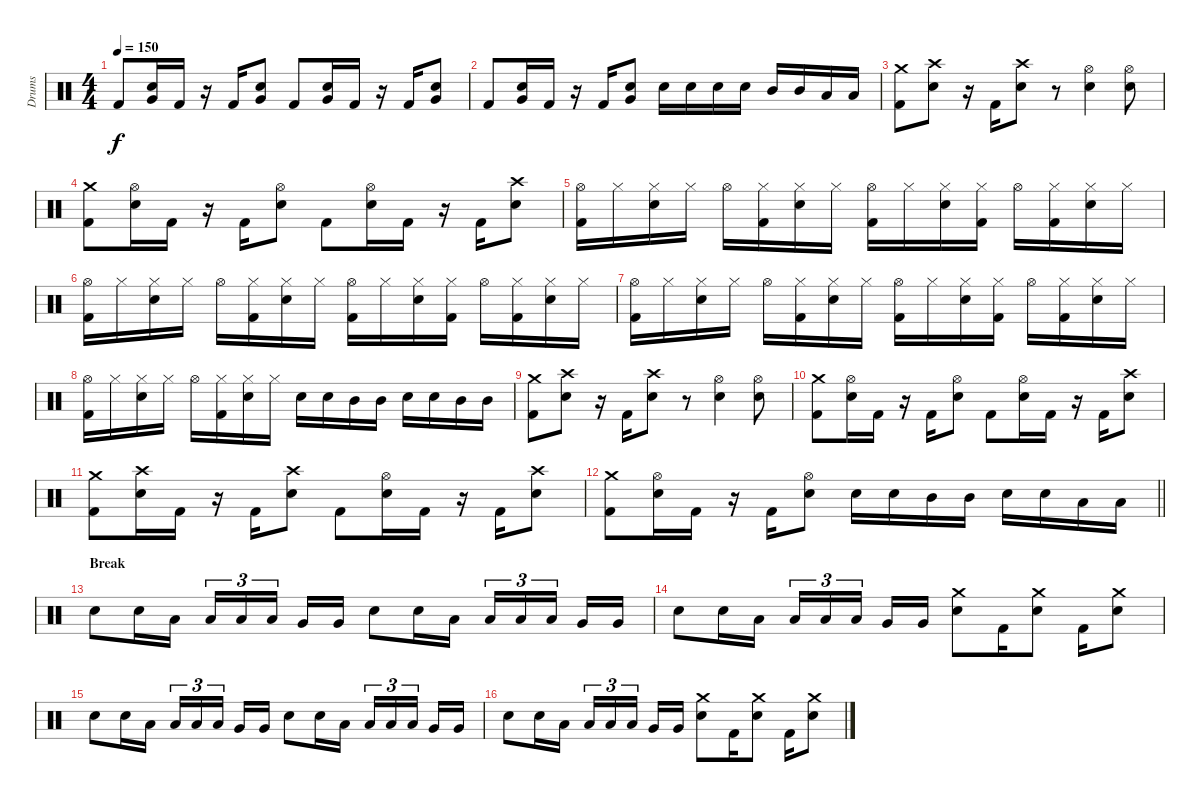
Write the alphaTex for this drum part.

\track ("Drums" "Drums") {instrument percussion}
\staff {score}
\articulation defaults
\ts (4 4)
\tempo 150
\clef neutral
\ks c "Kick (hit) 2".8{dy f}
("Very Low Tom (hit)" "Electric Snare (hit)").16 "Kick (hit) 2".16 r.16 "Kick (hit) 2".16 ("Very Low Tom (hit)" "Electric Snare (hit)").8 "Kick (hit) 2".8 ("Very Low Tom (hit)" "Electric Snare (hit)").16 "Kick (hit) 2".16 r.16 "Kick (hit) 2".16 ("Very Low Tom (hit)" "Electric Snare (hit)").8 |
"Kick (hit) 2".8 ("Very Low Tom (hit)" "Electric Snare (hit)").16 "Kick (hit) 2".16 r.16 "Kick (hit) 2".16 ("Very Low Tom (hit)" "Electric Snare (hit)").8 "Electric Snare (hit)".16 "Electric Snare (hit)".16 "Electric Snare (hit)".16 "Electric Snare (hit)".16 "Mid Tom (hit)".16 "Mid Tom (hit)".16 "Low Tom (hit)".16 "Low Tom (hit)".16 |
("Crash medium (hit)" "Kick (hit) 2").8 ("Crash high (hit)" "Electric Snare (hit)").8 r.16 "Kick (hit) 2".16 ("Crash high (hit)" "Electric Snare (hit)").8 r.8 ("Hi-Hat (open)" "Electric Snare (hit)").4 ("Hi-Hat (open)" "Electric Snare (hit)").8 |
("Crash medium (hit)" "Kick (hit) 2").8 ("Hi-Hat (open)" "Electric Snare (hit)").16 "Kick (hit) 2".16 r.16 "Kick (hit) 2".16 ("Hi-Hat (open)" "Electric Snare (hit)").8 "Kick (hit) 2".8 ("Hi-Hat (open)" "Electric Snare (hit)").16 "Kick (hit) 2".16 r.16 "Kick (hit) 2".16 ("Crash high (hit)" "Electric Snare (hit)").8 |
("Hi-Hat (open)" "Kick (hit) 2").16 "Hi-Hat (closed)".16 ("Hi-Hat (closed)" "Electric Snare (hit)").16 "Hi-Hat (closed)".16 "Hi-Hat (open)".16 ("Hi-Hat (closed)" "Kick (hit) 2").16 ("Hi-Hat (closed)" "Electric Snare (hit)").16 "Hi-Hat (closed)".16 ("Hi-Hat (open)" "Kick (hit) 2").16 "Hi-Hat (closed)".16 ("Hi-Hat (closed)" "Electric Snare (hit)").16 ("Hi-Hat (closed)" "Kick (hit) 2").16 "Hi-Hat (open)".16 ("Hi-Hat (closed)" "Kick (hit) 2").16 ("Hi-Hat (closed)" "Electric Snare (hit)").16 "Hi-Hat (closed)".16 |
("Hi-Hat (open)" "Kick (hit) 2").16 "Hi-Hat (closed)".16 ("Hi-Hat (closed)" "Electric Snare (hit)").16 "Hi-Hat (closed)".16 "Hi-Hat (open)".16 ("Hi-Hat (closed)" "Kick (hit) 2").16 ("Hi-Hat (closed)" "Electric Snare (hit)").16 "Hi-Hat (closed)".16 ("Hi-Hat (open)" "Kick (hit) 2").16 "Hi-Hat (closed)".16 ("Hi-Hat (closed)" "Electric Snare (hit)").16 ("Hi-Hat (closed)" "Kick (hit) 2").16 "Hi-Hat (open)".16 ("Hi-Hat (closed)" "Kick (hit) 2").16 ("Hi-Hat (closed)" "Electric Snare (hit)").16 "Hi-Hat (closed)".16 |
("Hi-Hat (open)" "Kick (hit) 2").16 "Hi-Hat (closed)".16 ("Hi-Hat (closed)" "Electric Snare (hit)").16 "Hi-Hat (closed)".16 "Hi-Hat (open)".16 ("Hi-Hat (closed)" "Kick (hit) 2").16 ("Hi-Hat (closed)" "Electric Snare (hit)").16 "Hi-Hat (closed)".16 ("Hi-Hat (open)" "Kick (hit) 2").16 "Hi-Hat (closed)".16 ("Hi-Hat (closed)" "Electric Snare (hit)").16 ("Hi-Hat (closed)" "Kick (hit) 2").16 "Hi-Hat (open)".16 ("Hi-Hat (closed)" "Kick (hit) 2").16 ("Hi-Hat (closed)" "Electric Snare (hit)").16 "Hi-Hat (closed)".16 |
("Hi-Hat (open)" "Kick (hit) 2").16 "Hi-Hat (closed)".16 ("Hi-Hat (closed)" "Electric Snare (hit)").16 "Hi-Hat (closed)".16 "Hi-Hat (open)".16 ("Hi-Hat (closed)" "Kick (hit) 2").16 ("Hi-Hat (closed)" "Electric Snare (hit)").16 "Hi-Hat (closed)".16 "Electric Snare (hit)".16 "Electric Snare (hit)".16 "Mid Tom (hit)".16 "Mid Tom (hit)".16 "Electric Snare (hit)".16 "Electric Snare (hit)".16 "Mid Tom (hit)".16 "Mid Tom (hit)".16 |
("Crash medium (hit)" "Kick (hit) 2").8 ("Crash high (hit)" "Electric Snare (hit)").8 r.16 "Kick (hit) 2".16 ("Crash high (hit)" "Electric Snare (hit)").8 r.8 ("Hi-Hat (open)" "Electric Snare (hit)").4 ("Hi-Hat (open)" "Electric Snare (hit)").8 |
("Crash medium (hit)" "Kick (hit) 2").8 ("Hi-Hat (open)" "Electric Snare (hit)").16 "Kick (hit) 2".16 r.16 "Kick (hit) 2".16 ("Hi-Hat (open)" "Electric Snare (hit)").8 "Kick (hit) 2".8 ("Hi-Hat (open)" "Electric Snare (hit)").16 "Kick (hit) 2".16 r.16 "Kick (hit) 2".16 ("Crash high (hit)" "Electric Snare (hit)").8 |
("Crash medium (hit)" "Kick (hit) 2").8 ("Crash high (hit)" "Electric Snare (hit)").16 "Kick (hit) 2".16 r.16 "Kick (hit) 2".16 ("Crash high (hit)" "Electric Snare (hit)").8 "Kick (hit) 2".8 ("Hi-Hat (open)" "Electric Snare (hit)").16 "Kick (hit) 2".16 r.16 "Kick (hit) 2".16 ("Crash high (hit)" "Electric Snare (hit)").8 |
\barLineRight lightlight
("Crash medium (hit)" "Kick (hit) 2").8 ("Hi-Hat (open)" "Electric Snare (hit)").16 "Kick (hit) 2".16 r.16 "Kick (hit) 2".16 ("Hi-Hat (open)" "Electric Snare (hit)").8 "Electric Snare (hit)".16 "Electric Snare (hit)".16 "Mid Tom (hit)".16 "Mid Tom (hit)".16 "Electric Snare (hit)".16 "Electric Snare (hit)".16 "Low Tom (hit)".16 "Low Tom (hit)".16 |
\section ("" "Break")
"Electric Snare (hit)".8 "Electric Snare (hit)".16 "Low Tom (hit)".16 "Low Tom (hit)".16{tu (3 2)} "Low Tom (hit)".16{tu (3 2)} "Low Tom (hit)".16{tu (3 2) beam splitsecondary} "Very Low Tom (hit)".16 "Very Low Tom (hit)".16 "Electric Snare (hit)".8 "Electric Snare (hit)".16 "Low Tom (hit)".16 "Low Tom (hit)".16{tu (3 2)} "Low Tom (hit)".16{tu (3 2)} "Low Tom (hit)".16{tu (3 2) beam splitsecondary} "Very Low Tom (hit)".16 "Very Low Tom (hit)".16 |
"Electric Snare (hit)".8 "Electric Snare (hit)".16 "Low Tom (hit)".16 "Low Tom (hit)".16{tu (3 2)} "Low Tom (hit)".16{tu (3 2)} "Low Tom (hit)".16{tu (3 2) beam splitsecondary} "Very Low Tom (hit)".16 "Very Low Tom (hit)".16 ("Crash medium (hit)" "Electric Snare (hit)").8 "Kick (hit) 2".16 ("Crash medium (hit)" "Electric Snare (hit)").8 "Kick (hit) 2".16 ("Crash medium (hit)" "Electric Snare (hit)").8 |
"Electric Snare (hit)".8 "Electric Snare (hit)".16 "Low Tom (hit)".16 "Low Tom (hit)".16{tu (3 2)} "Low Tom (hit)".16{tu (3 2)} "Low Tom (hit)".16{tu (3 2) beam splitsecondary} "Very Low Tom (hit)".16 "Very Low Tom (hit)".16 "Electric Snare (hit)".8 "Electric Snare (hit)".16 "Low Tom (hit)".16 "Low Tom (hit)".16{tu (3 2)} "Low Tom (hit)".16{tu (3 2)} "Low Tom (hit)".16{tu (3 2) beam splitsecondary} "Very Low Tom (hit)".16 "Very Low Tom (hit)".16 |
"Electric Snare (hit)".8 "Electric Snare (hit)".16 "Low Tom (hit)".16 "Low Tom (hit)".16{tu (3 2)} "Low Tom (hit)".16{tu (3 2)} "Low Tom (hit)".16{tu (3 2) beam splitsecondary} "Very Low Tom (hit)".16 "Very Low Tom (hit)".16 ("Crash medium (hit)" "Electric Snare (hit)").8 "Kick (hit) 2".16 ("Crash medium (hit)" "Electric Snare (hit)").8 "Kick (hit) 2".16 ("Crash medium (hit)" "Electric Snare (hit)").8
